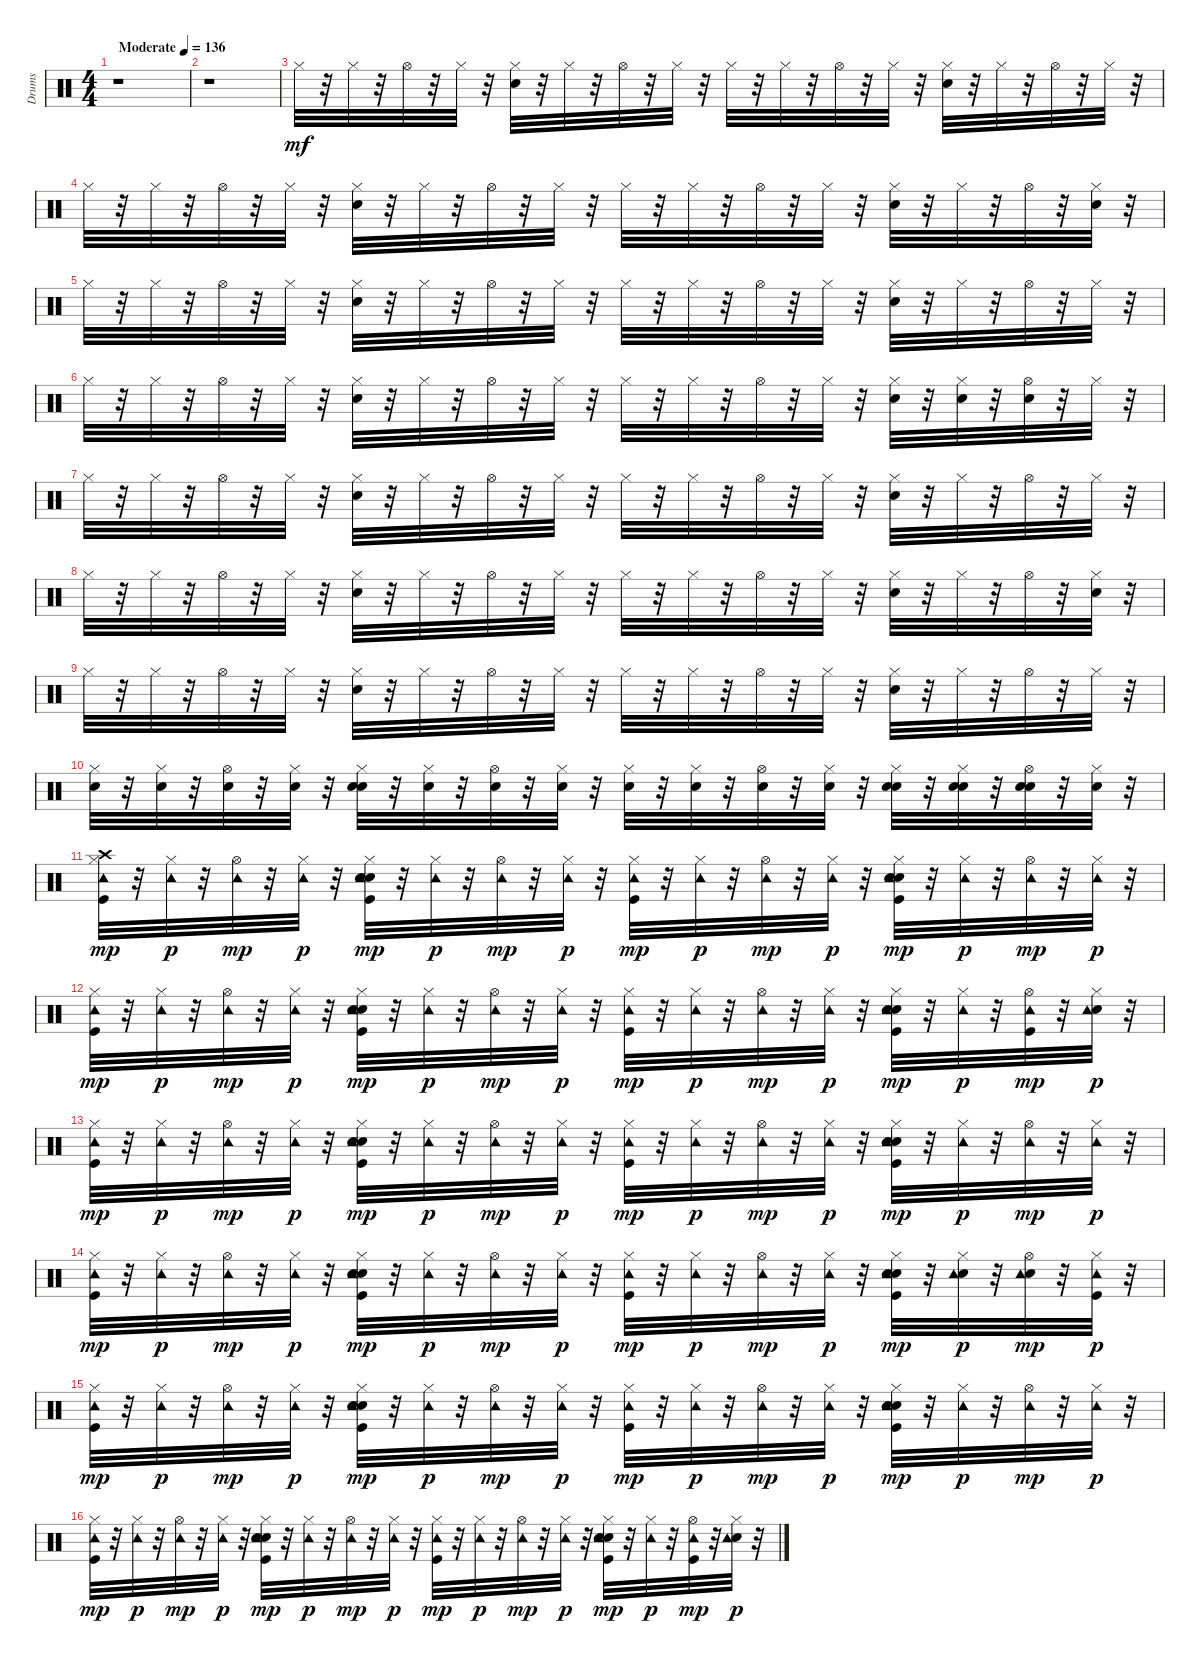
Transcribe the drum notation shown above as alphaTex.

\track ("Drums" "Drums") {instrument percussion}
\staff {score}
\articulation defaults
\ts (4 4)
\tempo (136 "Moderate")
\clef neutral
\ks c
r.1{dy mf} |
r.1 |
"Hi-Hat (closed)".32 r.32 "Hi-Hat (closed)".32 r.32 "Hi-Hat (open)".32 r.32 "Hi-Hat (closed)".32 r.32 ("Hand Clap (hit)" "Hi-Hat (closed)").32 r.32 "Hi-Hat (closed)".32 r.32 "Hi-Hat (open)".32 r.32 "Hi-Hat (closed)".32 r.32 "Hi-Hat (closed)".32 r.32 "Hi-Hat (closed)".32 r.32 "Hi-Hat (open)".32 r.32 "Hi-Hat (closed)".32 r.32 ("Hand Clap (hit)" "Hi-Hat (closed)").32 r.32 "Hi-Hat (closed)".32 r.32 "Hi-Hat (open)".32 r.32 "Hi-Hat (closed)".32 r.32 |
"Hi-Hat (closed)".32 r.32 "Hi-Hat (closed)".32 r.32 "Hi-Hat (open)".32 r.32 "Hi-Hat (closed)".32 r.32 ("Hand Clap (hit)" "Hi-Hat (closed)").32 r.32 "Hi-Hat (closed)".32 r.32 "Hi-Hat (open)".32 r.32 "Hi-Hat (closed)".32 r.32 "Hi-Hat (closed)".32 r.32 "Hi-Hat (closed)".32 r.32 "Hi-Hat (open)".32 r.32 "Hi-Hat (closed)".32 r.32 ("Hand Clap (hit)" "Hi-Hat (closed)").32 r.32 "Hi-Hat (closed)".32 r.32 "Hi-Hat (open)".32 r.32 ("Hand Clap (hit)" "Hi-Hat (closed)").32 r.32 |
"Hi-Hat (closed)".32 r.32 "Hi-Hat (closed)".32 r.32 "Hi-Hat (open)".32 r.32 "Hi-Hat (closed)".32 r.32 ("Hand Clap (hit)" "Hi-Hat (closed)").32 r.32 "Hi-Hat (closed)".32 r.32 "Hi-Hat (open)".32 r.32 "Hi-Hat (closed)".32 r.32 "Hi-Hat (closed)".32 r.32 "Hi-Hat (closed)".32 r.32 "Hi-Hat (open)".32 r.32 "Hi-Hat (closed)".32 r.32 ("Hand Clap (hit)" "Hi-Hat (closed)").32 r.32 "Hi-Hat (closed)".32 r.32 "Hi-Hat (open)".32 r.32 "Hi-Hat (closed)".32 r.32 |
"Hi-Hat (closed)".32 r.32 "Hi-Hat (closed)".32 r.32 "Hi-Hat (open)".32 r.32 "Hi-Hat (closed)".32 r.32 ("Hand Clap (hit)" "Hi-Hat (closed)").32 r.32 "Hi-Hat (closed)".32 r.32 "Hi-Hat (open)".32 r.32 "Hi-Hat (closed)".32 r.32 "Hi-Hat (closed)".32 r.32 "Hi-Hat (closed)".32 r.32 "Hi-Hat (open)".32 r.32 "Hi-Hat (closed)".32 r.32 ("Hand Clap (hit)" "Hi-Hat (closed)").32 r.32 ("Hand Clap (hit)" "Hi-Hat (closed)").32 r.32 ("Hand Clap (hit)" "Hi-Hat (open)").32 r.32 "Hi-Hat (closed)".32 r.32 |
"Hi-Hat (closed)".32 r.32 "Hi-Hat (closed)".32 r.32 "Hi-Hat (open)".32 r.32 "Hi-Hat (closed)".32 r.32 ("Hand Clap (hit)" "Hi-Hat (closed)").32 r.32 "Hi-Hat (closed)".32 r.32 "Hi-Hat (open)".32 r.32 "Hi-Hat (closed)".32 r.32 "Hi-Hat (closed)".32 r.32 "Hi-Hat (closed)".32 r.32 "Hi-Hat (open)".32 r.32 "Hi-Hat (closed)".32 r.32 ("Hand Clap (hit)" "Hi-Hat (closed)").32 r.32 "Hi-Hat (closed)".32 r.32 "Hi-Hat (open)".32 r.32 "Hi-Hat (closed)".32 r.32 |
"Hi-Hat (closed)".32 r.32 "Hi-Hat (closed)".32 r.32 "Hi-Hat (open)".32 r.32 "Hi-Hat (closed)".32 r.32 ("Hand Clap (hit)" "Hi-Hat (closed)").32 r.32 "Hi-Hat (closed)".32 r.32 "Hi-Hat (open)".32 r.32 "Hi-Hat (closed)".32 r.32 "Hi-Hat (closed)".32 r.32 "Hi-Hat (closed)".32 r.32 "Hi-Hat (open)".32 r.32 "Hi-Hat (closed)".32 r.32 ("Hand Clap (hit)" "Hi-Hat (closed)").32 r.32 "Hi-Hat (closed)".32 r.32 "Hi-Hat (open)".32 r.32 ("Hand Clap (hit)" "Hi-Hat (closed)").32 r.32 |
"Hi-Hat (closed)".32 r.32 "Hi-Hat (closed)".32 r.32 "Hi-Hat (open)".32 r.32 "Hi-Hat (closed)".32 r.32 ("Hand Clap (hit)" "Hi-Hat (closed)").32 r.32 "Hi-Hat (closed)".32 r.32 "Hi-Hat (open)".32 r.32 "Hi-Hat (closed)".32 r.32 "Hi-Hat (closed)".32 r.32 "Hi-Hat (closed)".32 r.32 "Hi-Hat (open)".32 r.32 "Hi-Hat (closed)".32 r.32 ("Hand Clap (hit)" "Hi-Hat (closed)").32 r.32 "Hi-Hat (closed)".32 r.32 "Hi-Hat (open)".32 r.32 "Hi-Hat (closed)".32 r.32 |
("Snare (hit) 2" "Hi-Hat (closed)").32 r.32 ("Snare (hit) 2" "Hi-Hat (closed)").32 r.32 ("Snare (hit) 2" "Hi-Hat (open)").32 r.32 ("Snare (hit) 2" "Hi-Hat (closed)").32 r.32 ("Snare (hit) 2" "Hand Clap (hit)" "Hi-Hat (closed)").32 r.32 ("Snare (hit) 2" "Hi-Hat (closed)").32 r.32 ("Snare (hit) 2" "Hi-Hat (open)").32 r.32 ("Snare (hit) 2" "Hi-Hat (closed)").32 r.32 ("Snare (hit) 2" "Hi-Hat (closed)").32 r.32 ("Snare (hit) 2" "Hi-Hat (closed)").32 r.32 ("Snare (hit) 2" "Hi-Hat (open)").32 r.32 ("Snare (hit) 2" "Hi-Hat (closed)").32 r.32 ("Snare (hit) 2" "Hand Clap (hit)" "Hi-Hat (closed)").32 r.32 ("Snare (hit) 2" "Hand Clap (hit)" "Hi-Hat (closed)").32 r.32 ("Snare (hit) 2" "Hand Clap (hit)" "Hi-Hat (open)").32 r.32 ("Snare (hit) 2" "Hi-Hat (closed)").32 r.32 |
("Kick (hit)" "Hi-Hat (closed)" "Crash high (hit)" "Tambourine (hit)").32{dy mp} r.32 ("Hi-Hat (closed)" "Tambourine (hit)").32{dy p} r.32 ("Hi-Hat (open)" "Tambourine (hit)").32{dy mp} r.32 ("Hi-Hat (closed)" "Tambourine (hit)").32{dy p} r.32 ("Kick (hit)" "Snare (hit) 2" "Hand Clap (hit)" "Hi-Hat (closed)" "Tambourine (hit)").32{dy mp} r.32 ("Hi-Hat (closed)" "Tambourine (hit)").32{dy p} r.32 ("Hi-Hat (open)" "Tambourine (hit)").32{dy mp} r.32 ("Hi-Hat (closed)" "Tambourine (hit)").32{dy p} r.32 ("Kick (hit)" "Hi-Hat (closed)" "Tambourine (hit)").32{dy mp} r.32 ("Hi-Hat (closed)" "Tambourine (hit)").32{dy p} r.32 ("Hi-Hat (open)" "Tambourine (hit)").32{dy mp} r.32 ("Hi-Hat (closed)" "Tambourine (hit)").32{dy p} r.32 ("Kick (hit)" "Snare (hit) 2" "Hand Clap (hit)" "Hi-Hat (closed)" "Tambourine (hit)").32{dy mp} r.32 ("Hi-Hat (closed)" "Tambourine (hit)").32{dy p} r.32 ("Hi-Hat (open)" "Tambourine (hit)").32{dy mp} r.32 ("Hi-Hat (closed)" "Tambourine (hit)").32{dy p} r.32 |
("Kick (hit)" "Hi-Hat (closed)" "Tambourine (hit)").32{dy mp} r.32 ("Hi-Hat (closed)" "Tambourine (hit)").32{dy p} r.32 ("Hi-Hat (open)" "Tambourine (hit)").32{dy mp} r.32 ("Hi-Hat (closed)" "Tambourine (hit)").32{dy p} r.32 ("Kick (hit)" "Snare (hit) 2" "Hand Clap (hit)" "Hi-Hat (closed)" "Tambourine (hit)").32{dy mp} r.32 ("Hi-Hat (closed)" "Tambourine (hit)").32{dy p} r.32 ("Hi-Hat (open)" "Tambourine (hit)").32{dy mp} r.32 ("Hi-Hat (closed)" "Tambourine (hit)").32{dy p} r.32 ("Kick (hit)" "Hi-Hat (closed)" "Tambourine (hit)").32{dy mp} r.32 ("Hi-Hat (closed)" "Tambourine (hit)").32{dy p} r.32 ("Hi-Hat (open)" "Tambourine (hit)").32{dy mp} r.32 ("Hi-Hat (closed)" "Tambourine (hit)").32{dy p} r.32 ("Kick (hit)" "Snare (hit) 2" "Hand Clap (hit)" "Hi-Hat (closed)" "Tambourine (hit)").32{dy mp} r.32 ("Hi-Hat (closed)" "Tambourine (hit)").32{dy p} r.32 ("Kick (hit)" "Hi-Hat (open)" "Tambourine (hit)").32{dy mp} r.32 ("Hand Clap (hit)" "Hi-Hat (closed)" "Tambourine (hit)").32{dy p} r.32 |
("Kick (hit)" "Hi-Hat (closed)" "Tambourine (hit)").32{dy mp} r.32 ("Hi-Hat (closed)" "Tambourine (hit)").32{dy p} r.32 ("Hi-Hat (open)" "Tambourine (hit)").32{dy mp} r.32 ("Hi-Hat (closed)" "Tambourine (hit)").32{dy p} r.32 ("Kick (hit)" "Snare (hit) 2" "Hand Clap (hit)" "Hi-Hat (closed)" "Tambourine (hit)").32{dy mp} r.32 ("Hi-Hat (closed)" "Tambourine (hit)").32{dy p} r.32 ("Hi-Hat (open)" "Tambourine (hit)").32{dy mp} r.32 ("Hi-Hat (closed)" "Tambourine (hit)").32{dy p} r.32 ("Kick (hit)" "Hi-Hat (closed)" "Tambourine (hit)").32{dy mp} r.32 ("Hi-Hat (closed)" "Tambourine (hit)").32{dy p} r.32 ("Hi-Hat (open)" "Tambourine (hit)").32{dy mp} r.32 ("Hi-Hat (closed)" "Tambourine (hit)").32{dy p} r.32 ("Kick (hit)" "Snare (hit) 2" "Hand Clap (hit)" "Hi-Hat (closed)" "Tambourine (hit)").32{dy mp} r.32 ("Hi-Hat (closed)" "Tambourine (hit)").32{dy p} r.32 ("Hi-Hat (open)" "Tambourine (hit)").32{dy mp} r.32 ("Hi-Hat (closed)" "Tambourine (hit)").32{dy p} r.32 |
("Kick (hit)" "Hi-Hat (closed)" "Tambourine (hit)").32{dy mp} r.32 ("Hi-Hat (closed)" "Tambourine (hit)").32{dy p} r.32 ("Hi-Hat (open)" "Tambourine (hit)").32{dy mp} r.32 ("Hi-Hat (closed)" "Tambourine (hit)").32{dy p} r.32 ("Kick (hit)" "Snare (hit) 2" "Hand Clap (hit)" "Hi-Hat (closed)" "Tambourine (hit)").32{dy mp} r.32 ("Hi-Hat (closed)" "Tambourine (hit)").32{dy p} r.32 ("Hi-Hat (open)" "Tambourine (hit)").32{dy mp} r.32 ("Hi-Hat (closed)" "Tambourine (hit)").32{dy p} r.32 ("Kick (hit)" "Hi-Hat (closed)" "Tambourine (hit)").32{dy mp} r.32 ("Hi-Hat (closed)" "Tambourine (hit)").32{dy p} r.32 ("Hi-Hat (open)" "Tambourine (hit)").32{dy mp} r.32 ("Hi-Hat (closed)" "Tambourine (hit)").32{dy p} r.32 ("Kick (hit)" "Snare (hit) 2" "Hand Clap (hit)" "Hi-Hat (closed)" "Tambourine (hit)").32{dy mp} r.32 ("Hand Clap (hit)" "Hi-Hat (closed)" "Tambourine (hit)").32{dy p} r.32 ("Hand Clap (hit)" "Hi-Hat (open)" "Tambourine (hit)").32{dy mp} r.32 ("Kick (hit)" "Hi-Hat (closed)" "Tambourine (hit)").32{dy p} r.32 |
("Kick (hit)" "Hi-Hat (closed)" "Tambourine (hit)").32{dy mp} r.32 ("Hi-Hat (closed)" "Tambourine (hit)").32{dy p} r.32 ("Hi-Hat (open)" "Tambourine (hit)").32{dy mp} r.32 ("Hi-Hat (closed)" "Tambourine (hit)").32{dy p} r.32 ("Kick (hit)" "Snare (hit) 2" "Hand Clap (hit)" "Hi-Hat (closed)" "Tambourine (hit)").32{dy mp} r.32 ("Hi-Hat (closed)" "Tambourine (hit)").32{dy p} r.32 ("Hi-Hat (open)" "Tambourine (hit)").32{dy mp} r.32 ("Hi-Hat (closed)" "Tambourine (hit)").32{dy p} r.32 ("Kick (hit)" "Hi-Hat (closed)" "Tambourine (hit)").32{dy mp} r.32 ("Hi-Hat (closed)" "Tambourine (hit)").32{dy p} r.32 ("Hi-Hat (open)" "Tambourine (hit)").32{dy mp} r.32 ("Hi-Hat (closed)" "Tambourine (hit)").32{dy p} r.32 ("Kick (hit)" "Snare (hit) 2" "Hand Clap (hit)" "Hi-Hat (closed)" "Tambourine (hit)").32{dy mp} r.32 ("Hi-Hat (closed)" "Tambourine (hit)").32{dy p} r.32 ("Hi-Hat (open)" "Tambourine (hit)").32{dy mp} r.32 ("Hi-Hat (closed)" "Tambourine (hit)").32{dy p} r.32 |
("Kick (hit)" "Hi-Hat (closed)" "Tambourine (hit)").32{dy mp} r.32 ("Hi-Hat (closed)" "Tambourine (hit)").32{dy p} r.32 ("Hi-Hat (open)" "Tambourine (hit)").32{dy mp} r.32 ("Hi-Hat (closed)" "Tambourine (hit)").32{dy p} r.32 ("Kick (hit)" "Snare (hit) 2" "Hand Clap (hit)" "Hi-Hat (closed)" "Tambourine (hit)").32{dy mp} r.32 ("Hi-Hat (closed)" "Tambourine (hit)").32{dy p} r.32 ("Hi-Hat (open)" "Tambourine (hit)").32{dy mp} r.32 ("Hi-Hat (closed)" "Tambourine (hit)").32{dy p} r.32 ("Kick (hit)" "Hi-Hat (closed)" "Tambourine (hit)").32{dy mp} r.32 ("Hi-Hat (closed)" "Tambourine (hit)").32{dy p} r.32 ("Hi-Hat (open)" "Tambourine (hit)").32{dy mp} r.32 ("Hi-Hat (closed)" "Tambourine (hit)").32{dy p} r.32 ("Kick (hit)" "Snare (hit) 2" "Hand Clap (hit)" "Hi-Hat (closed)" "Tambourine (hit)").32{dy mp} r.32 ("Hi-Hat (closed)" "Tambourine (hit)").32{dy p} r.32 ("Kick (hit)" "Hi-Hat (open)" "Tambourine (hit)").32{dy mp} r.32 ("Hand Clap (hit)" "Hi-Hat (closed)" "Tambourine (hit)").32{dy p} r.32
